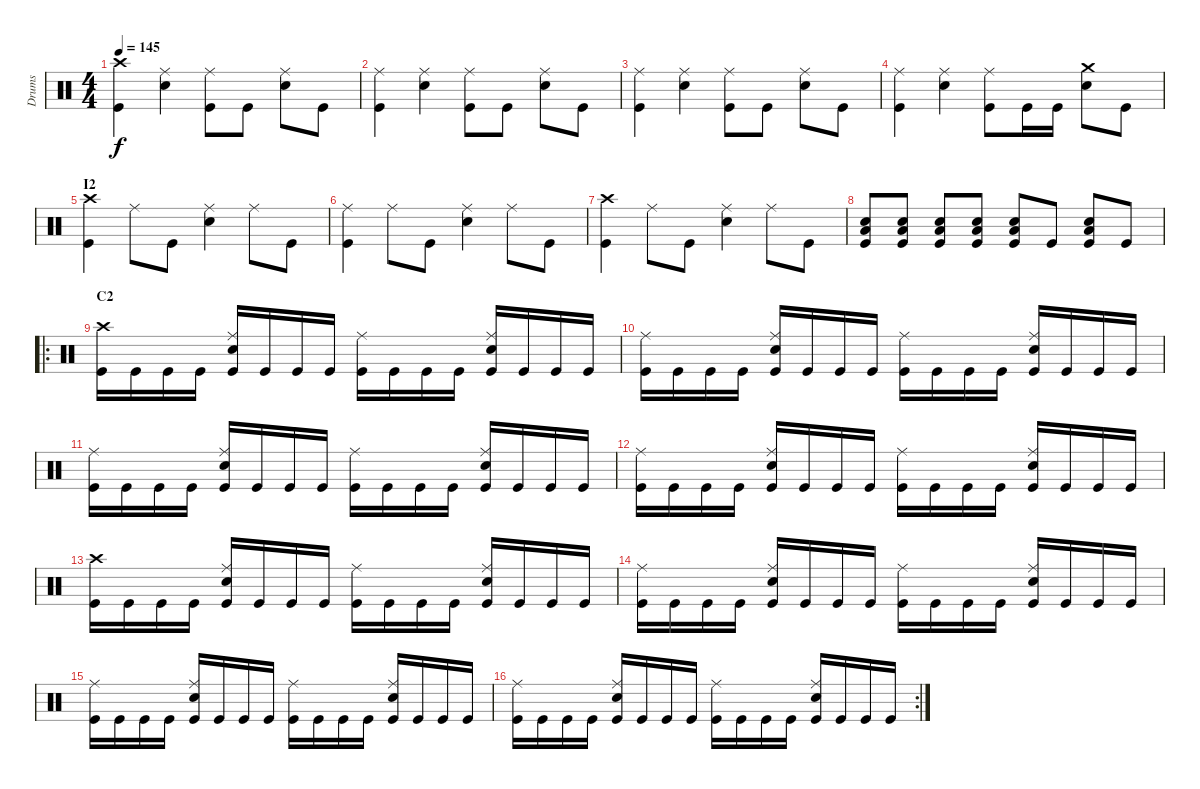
\track ("Drums" "Drums") {instrument percussion}
\staff {score}
\articulation defaults
\ts (4 4)
\tempo 145
\clef neutral
\ks c
("Crash high (hit)" "Kick (hit)").4{dy f} ("Ride (middle)" "Snare (hit) 2").4 ("Ride (middle)" "Kick (hit)").8 "Kick (hit)".8 ("Ride (middle)" "Snare (hit) 2").8 "Kick (hit)".8 |
("Ride (middle)" "Kick (hit)").4 ("Ride (middle)" "Snare (hit) 2").4 ("Ride (middle)" "Kick (hit)").8 "Kick (hit)".8 ("Ride (middle)" "Snare (hit) 2").8 "Kick (hit)".8 |
("Ride (middle)" "Kick (hit)").4 ("Ride (middle)" "Snare (hit) 2").4 ("Ride (middle)" "Kick (hit)").8 "Kick (hit)".8 ("Ride (middle)" "Snare (hit) 2").8 "Kick (hit)".8 |
("Ride (middle)" "Kick (hit)").4 ("Ride (middle)" "Snare (hit) 2").4 ("Ride (middle)" "Kick (hit)").8 "Kick (hit)".16 "Kick (hit)".16 ("Crash medium (hit)" "Snare (hit) 2").8 "Kick (hit)".8 |
\section ("" "I2")
("Crash high (hit)" "Kick (hit)").4 "Ride (middle)".8 "Kick (hit)".8 ("Ride (middle)" "Snare (hit) 2").4 "Ride (middle)".8 "Kick (hit)".8 |
("Ride (middle)" "Kick (hit)").4 "Ride (middle)".8 "Kick (hit)".8 ("Ride (middle)" "Snare (hit) 2").4 "Ride (middle)".8 "Kick (hit)".8 |
("Crash high (hit)" "Kick (hit)").4 "Ride (middle)".8 "Kick (hit)".8 ("Ride (middle)" "Snare (hit) 2").4 "Ride (middle)".8 "Kick (hit)".8 |
("Low Floor Tom (hit)" "Snare (hit) 2" "Kick (hit)").8 ("Low Floor Tom (hit)" "Snare (hit) 2" "Kick (hit)").8 ("Low Floor Tom (hit)" "Snare (hit) 2" "Kick (hit)").8 ("Low Floor Tom (hit)" "Snare (hit) 2" "Kick (hit)").8 ("Low Floor Tom (hit)" "Snare (hit) 2" "Kick (hit)").8 "Kick (hit)".8 ("Low Floor Tom (hit)" "Snare (hit) 2" "Kick (hit)").8 "Kick (hit)".8 |
\ro
\section ("" "C2")
("Crash high (hit)" "Kick (hit)").16 "Kick (hit)".16 "Kick (hit)".16 "Kick (hit)".16 ("Ride (middle)" "Snare (hit) 2" "Kick (hit)").16 "Kick (hit)".16 "Kick (hit)".16 "Kick (hit)".16 ("Ride (middle)" "Kick (hit)").16 "Kick (hit)".16 "Kick (hit)".16 "Kick (hit)".16 ("Ride (middle)" "Snare (hit) 2" "Kick (hit)").16 "Kick (hit)".16 "Kick (hit)".16 "Kick (hit)".16 |
("Ride (middle)" "Kick (hit)").16 "Kick (hit)".16 "Kick (hit)".16 "Kick (hit)".16 ("Ride (middle)" "Snare (hit) 2" "Kick (hit)").16 "Kick (hit)".16 "Kick (hit)".16 "Kick (hit)".16 ("Ride (middle)" "Kick (hit)").16 "Kick (hit)".16 "Kick (hit)".16 "Kick (hit)".16 ("Ride (middle)" "Snare (hit) 2" "Kick (hit)").16 "Kick (hit)".16 "Kick (hit)".16 "Kick (hit)".16 |
("Ride (middle)" "Kick (hit)").16 "Kick (hit)".16 "Kick (hit)".16 "Kick (hit)".16 ("Ride (middle)" "Snare (hit) 2" "Kick (hit)").16 "Kick (hit)".16 "Kick (hit)".16 "Kick (hit)".16 ("Ride (middle)" "Kick (hit)").16 "Kick (hit)".16 "Kick (hit)".16 "Kick (hit)".16 ("Ride (middle)" "Snare (hit) 2" "Kick (hit)").16 "Kick (hit)".16 "Kick (hit)".16 "Kick (hit)".16 |
("Ride (middle)" "Kick (hit)").16 "Kick (hit)".16 "Kick (hit)".16 "Kick (hit)".16 ("Ride (middle)" "Snare (hit) 2" "Kick (hit)").16 "Kick (hit)".16 "Kick (hit)".16 "Kick (hit)".16 ("Ride (middle)" "Kick (hit)").16 "Kick (hit)".16 "Kick (hit)".16 "Kick (hit)".16 ("Ride (middle)" "Snare (hit) 2" "Kick (hit)").16 "Kick (hit)".16 "Kick (hit)".16 "Kick (hit)".16 |
("Crash high (hit)" "Kick (hit)").16 "Kick (hit)".16 "Kick (hit)".16 "Kick (hit)".16 ("Ride (middle)" "Snare (hit) 2" "Kick (hit)").16 "Kick (hit)".16 "Kick (hit)".16 "Kick (hit)".16 ("Ride (middle)" "Kick (hit)").16 "Kick (hit)".16 "Kick (hit)".16 "Kick (hit)".16 ("Ride (middle)" "Snare (hit) 2" "Kick (hit)").16 "Kick (hit)".16 "Kick (hit)".16 "Kick (hit)".16 |
("Ride (middle)" "Kick (hit)").16 "Kick (hit)".16 "Kick (hit)".16 "Kick (hit)".16 ("Ride (middle)" "Snare (hit) 2" "Kick (hit)").16 "Kick (hit)".16 "Kick (hit)".16 "Kick (hit)".16 ("Ride (middle)" "Kick (hit)").16 "Kick (hit)".16 "Kick (hit)".16 "Kick (hit)".16 ("Ride (middle)" "Snare (hit) 2" "Kick (hit)").16 "Kick (hit)".16 "Kick (hit)".16 "Kick (hit)".16 |
("Ride (middle)" "Kick (hit)").16 "Kick (hit)".16 "Kick (hit)".16 "Kick (hit)".16 ("Ride (middle)" "Snare (hit) 2" "Kick (hit)").16 "Kick (hit)".16 "Kick (hit)".16 "Kick (hit)".16 ("Ride (middle)" "Kick (hit)").16 "Kick (hit)".16 "Kick (hit)".16 "Kick (hit)".16 ("Ride (middle)" "Snare (hit) 2" "Kick (hit)").16 "Kick (hit)".16 "Kick (hit)".16 "Kick (hit)".16 |
\rc 2
("Ride (middle)" "Kick (hit)").16 "Kick (hit)".16 "Kick (hit)".16 "Kick (hit)".16 ("Ride (middle)" "Snare (hit) 2" "Kick (hit)").16 "Kick (hit)".16 "Kick (hit)".16 "Kick (hit)".16 ("Ride (middle)" "Kick (hit)").16 "Kick (hit)".16 "Kick (hit)".16 "Kick (hit)".16 ("Ride (middle)" "Snare (hit) 2" "Kick (hit)").16 "Kick (hit)".16 "Kick (hit)".16 "Kick (hit)".16
